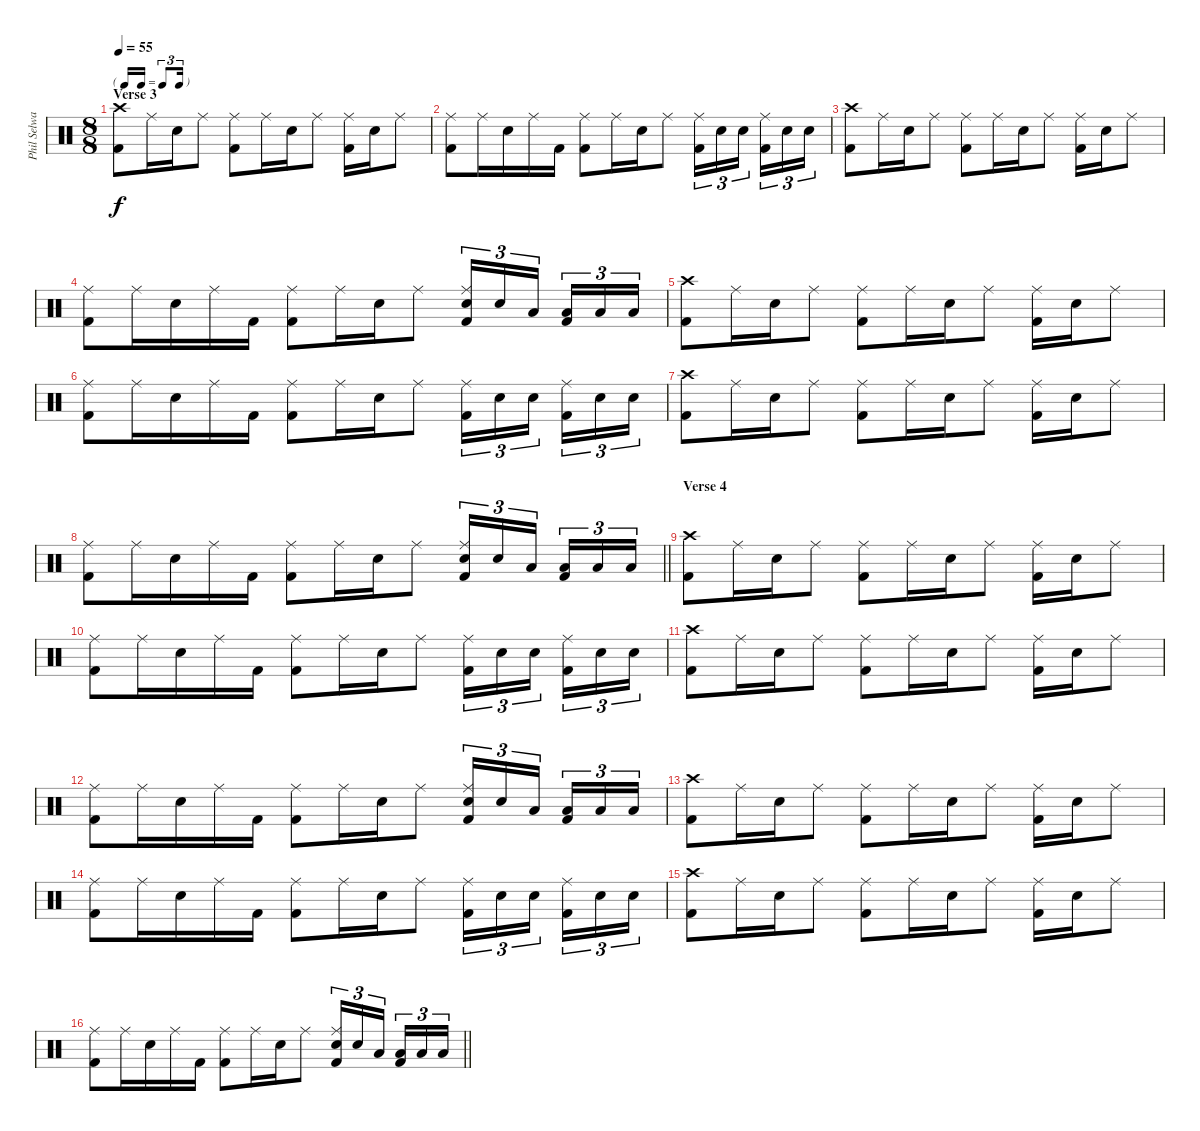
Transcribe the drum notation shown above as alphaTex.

\track ("Phil Selway(drums)" "Phil Selwa") {instrument percussion}
\staff {score}
\articulation defaults
\ts (8 8)
\tf triplet16th
\section ("" "Verse 3")
\tempo 55
\clef neutral
\ks c
("Crash high (hit)" "Kick (hit) 2").8{dy f} "Ride (middle)".16 "Snare (hit) 2".16 "Ride (middle)".8 ("Ride (middle)" "Kick (hit) 2").8 "Ride (middle)".16 "Snare (hit) 2".16 "Ride (middle)".8 ("Ride (middle)" "Kick (hit) 2").16 "Snare (hit) 2".16 "Ride (middle)".8 |
("Ride (middle)" "Kick (hit) 2").8 "Ride (middle)".16 "Snare (hit) 2".16 "Ride (middle)".16 "Kick (hit) 2".16 ("Ride (middle)" "Kick (hit) 2").8 "Ride (middle)".16 "Snare (hit) 2".16 "Ride (middle)".8 ("Ride (middle)" "Kick (hit) 2").16{tu (3 2)} "Snare (hit) 2".16{tu (3 2)} "Snare (hit) 2".16{tu (3 2)} ("Ride (middle)" "Kick (hit) 2").16{tu (3 2)} "Snare (hit) 2".16{tu (3 2)} "Snare (hit) 2".16{tu (3 2)} |
("Crash high (hit)" "Kick (hit) 2").8 "Ride (middle)".16 "Snare (hit) 2".16 "Ride (middle)".8 ("Ride (middle)" "Kick (hit) 2").8 "Ride (middle)".16 "Snare (hit) 2".16 "Ride (middle)".8 ("Ride (middle)" "Kick (hit) 2").16 "Snare (hit) 2".16 "Ride (middle)".8 |
("Ride (middle)" "Kick (hit) 2").8 "Ride (middle)".16 "Snare (hit) 2".16 "Ride (middle)".16 "Kick (hit) 2".16 ("Ride (middle)" "Kick (hit) 2").8 "Ride (middle)".16 "Snare (hit) 2".16 "Ride (middle)".8 ("Ride (middle)" "Snare (hit) 2" "Kick (hit) 2").16{tu (3 2)} "Snare (hit) 2".16{tu (3 2)} "Low Tom (hit)".16{tu (3 2)} ("Low Tom (hit)" "Kick (hit) 2").16{tu (3 2)} "Low Floor Tom (hit)".16{tu (3 2)} "Low Floor Tom (hit)".16{tu (3 2)} |
("Crash high (hit)" "Kick (hit) 2").8 "Ride (middle)".16 "Snare (hit) 2".16 "Ride (middle)".8 ("Ride (middle)" "Kick (hit) 2").8 "Ride (middle)".16 "Snare (hit) 2".16 "Ride (middle)".8 ("Ride (middle)" "Kick (hit) 2").16 "Snare (hit) 2".16 "Ride (middle)".8 |
("Ride (middle)" "Kick (hit) 2").8 "Ride (middle)".16 "Snare (hit) 2".16 "Ride (middle)".16 "Kick (hit) 2".16 ("Ride (middle)" "Kick (hit) 2").8 "Ride (middle)".16 "Snare (hit) 2".16 "Ride (middle)".8 ("Ride (middle)" "Kick (hit) 2").16{tu (3 2)} "Snare (hit) 2".16{tu (3 2)} "Snare (hit) 2".16{tu (3 2)} ("Ride (middle)" "Kick (hit) 2").16{tu (3 2)} "Snare (hit) 2".16{tu (3 2)} "Snare (hit) 2".16{tu (3 2)} |
("Crash high (hit)" "Kick (hit) 2").8 "Ride (middle)".16 "Snare (hit) 2".16 "Ride (middle)".8 ("Ride (middle)" "Kick (hit) 2").8 "Ride (middle)".16 "Snare (hit) 2".16 "Ride (middle)".8 ("Ride (middle)" "Kick (hit) 2").16 "Snare (hit) 2".16 "Ride (middle)".8 |
\barLineRight lightlight
("Ride (middle)" "Kick (hit) 2").8 "Ride (middle)".16 "Snare (hit) 2".16 "Ride (middle)".16 "Kick (hit) 2".16 ("Ride (middle)" "Kick (hit) 2").8 "Ride (middle)".16 "Snare (hit) 2".16 "Ride (middle)".8 ("Ride (middle)" "Snare (hit) 2" "Kick (hit) 2").16{tu (3 2)} "Snare (hit) 2".16{tu (3 2)} "Low Tom (hit)".16{tu (3 2)} ("Low Tom (hit)" "Kick (hit) 2").16{tu (3 2)} "Low Floor Tom (hit)".16{tu (3 2)} "Low Floor Tom (hit)".16{tu (3 2)} |
\section ("" "Verse 4")
("Crash high (hit)" "Kick (hit) 2").8 "Ride (middle)".16 "Snare (hit) 2".16 "Ride (middle)".8 ("Ride (middle)" "Kick (hit) 2").8 "Ride (middle)".16 "Snare (hit) 2".16 "Ride (middle)".8 ("Ride (middle)" "Kick (hit) 2").16 "Snare (hit) 2".16 "Ride (middle)".8 |
("Ride (middle)" "Kick (hit) 2").8 "Ride (middle)".16 "Snare (hit) 2".16 "Ride (middle)".16 "Kick (hit) 2".16 ("Ride (middle)" "Kick (hit) 2").8 "Ride (middle)".16 "Snare (hit) 2".16 "Ride (middle)".8 ("Ride (middle)" "Kick (hit) 2").16{tu (3 2)} "Snare (hit) 2".16{tu (3 2)} "Snare (hit) 2".16{tu (3 2)} ("Ride (middle)" "Kick (hit) 2").16{tu (3 2)} "Snare (hit) 2".16{tu (3 2)} "Snare (hit) 2".16{tu (3 2)} |
("Crash high (hit)" "Kick (hit) 2").8 "Ride (middle)".16 "Snare (hit) 2".16 "Ride (middle)".8 ("Ride (middle)" "Kick (hit) 2").8 "Ride (middle)".16 "Snare (hit) 2".16 "Ride (middle)".8 ("Ride (middle)" "Kick (hit) 2").16 "Snare (hit) 2".16 "Ride (middle)".8 |
("Ride (middle)" "Kick (hit) 2").8 "Ride (middle)".16 "Snare (hit) 2".16 "Ride (middle)".16 "Kick (hit) 2".16 ("Ride (middle)" "Kick (hit) 2").8 "Ride (middle)".16 "Snare (hit) 2".16 "Ride (middle)".8 ("Ride (middle)" "Snare (hit) 2" "Kick (hit) 2").16{tu (3 2)} "Snare (hit) 2".16{tu (3 2)} "Low Tom (hit)".16{tu (3 2)} ("Low Tom (hit)" "Kick (hit) 2").16{tu (3 2)} "Low Floor Tom (hit)".16{tu (3 2)} "Low Floor Tom (hit)".16{tu (3 2)} |
("Crash high (hit)" "Kick (hit) 2").8 "Ride (middle)".16 "Snare (hit) 2".16 "Ride (middle)".8 ("Ride (middle)" "Kick (hit) 2").8 "Ride (middle)".16 "Snare (hit) 2".16 "Ride (middle)".8 ("Ride (middle)" "Kick (hit) 2").16 "Snare (hit) 2".16 "Ride (middle)".8 |
("Ride (middle)" "Kick (hit) 2").8 "Ride (middle)".16 "Snare (hit) 2".16 "Ride (middle)".16 "Kick (hit) 2".16 ("Ride (middle)" "Kick (hit) 2").8 "Ride (middle)".16 "Snare (hit) 2".16 "Ride (middle)".8 ("Ride (middle)" "Kick (hit) 2").16{tu (3 2)} "Snare (hit) 2".16{tu (3 2)} "Snare (hit) 2".16{tu (3 2)} ("Ride (middle)" "Kick (hit) 2").16{tu (3 2)} "Snare (hit) 2".16{tu (3 2)} "Snare (hit) 2".16{tu (3 2)} |
("Crash high (hit)" "Kick (hit) 2").8 "Ride (middle)".16 "Snare (hit) 2".16 "Ride (middle)".8 ("Ride (middle)" "Kick (hit) 2").8 "Ride (middle)".16 "Snare (hit) 2".16 "Ride (middle)".8 ("Ride (middle)" "Kick (hit) 2").16 "Snare (hit) 2".16 "Ride (middle)".8 |
\barLineRight lightlight
("Ride (middle)" "Kick (hit) 2").8 "Ride (middle)".16 "Snare (hit) 2".16 "Ride (middle)".16 "Kick (hit) 2".16 ("Ride (middle)" "Kick (hit) 2").8 "Ride (middle)".16 "Snare (hit) 2".16 "Ride (middle)".8 ("Ride (middle)" "Snare (hit) 2" "Kick (hit) 2").16{tu (3 2)} "Snare (hit) 2".16{tu (3 2)} "Low Tom (hit)".16{tu (3 2)} ("Low Tom (hit)" "Kick (hit) 2").16{tu (3 2)} "Low Floor Tom (hit)".16{tu (3 2)} "Low Floor Tom (hit)".16{tu (3 2)}
